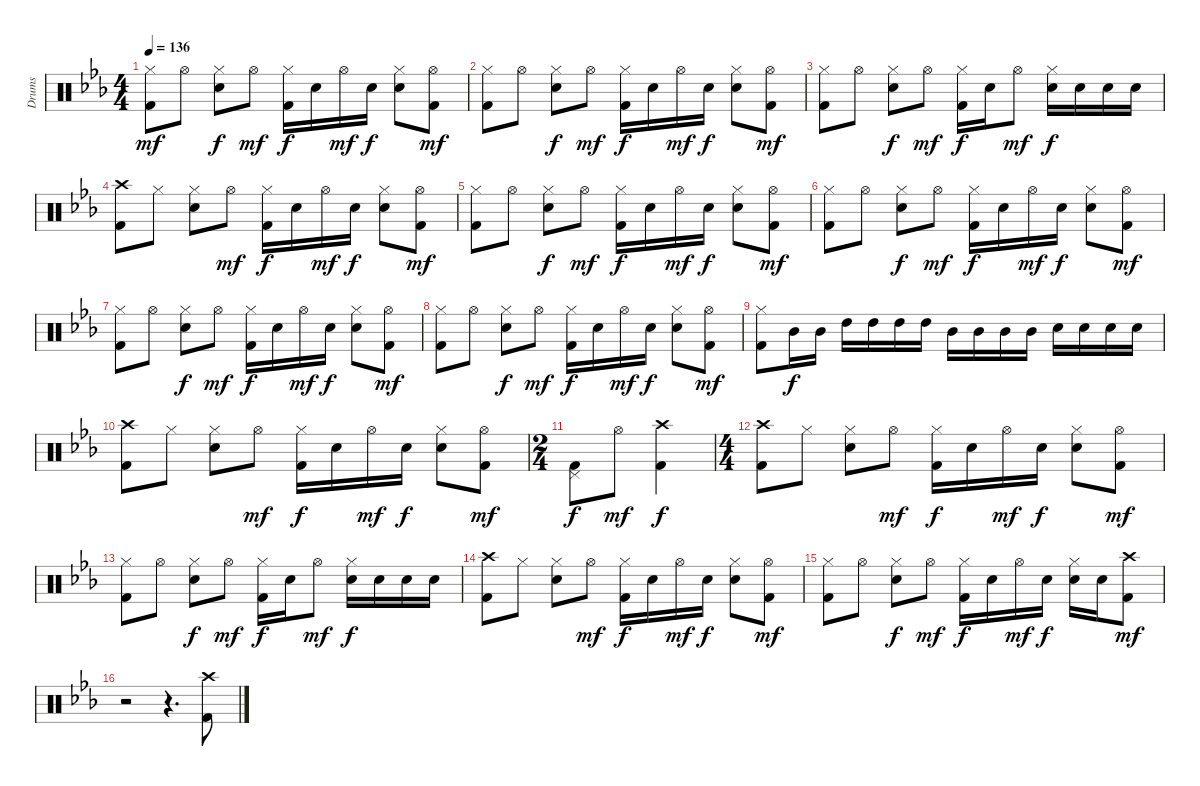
\track ("Drums" "Drums") {instrument percussion}
\staff {score}
\articulation defaults
\ts (4 4)
\tempo 136
\clef neutral
\ks eb
("Hi-Hat (closed)" "Kick (hit) 2").8{dy mf} "Hi-Hat (open)".8 ("Hi-Hat (closed)" "Electric Snare (hit)").8{dy f} "Hi-Hat (open)".8{dy mf} ("Hi-Hat (closed)" "Kick (hit) 2").16{dy f} "Electric Snare (hit)".16 "Hi-Hat (open)".16{dy mf} "Electric Snare (hit)".16{dy f} ("Hi-Hat (closed)" "Electric Snare (hit)").8 ("Hi-Hat (open)" "Kick (hit) 2").8{dy mf} |
("Hi-Hat (closed)" "Kick (hit) 2").8 "Hi-Hat (open)".8 ("Hi-Hat (closed)" "Electric Snare (hit)").8{dy f} "Hi-Hat (open)".8{dy mf} ("Hi-Hat (closed)" "Kick (hit) 2").16{dy f} "Electric Snare (hit)".16 "Hi-Hat (open)".16{dy mf} "Electric Snare (hit)".16{dy f} ("Hi-Hat (closed)" "Electric Snare (hit)").8 ("Hi-Hat (open)" "Kick (hit) 2").8{dy mf} |
("Hi-Hat (closed)" "Kick (hit) 2").8 "Hi-Hat (open)".8 ("Hi-Hat (closed)" "Electric Snare (hit)").8{dy f} "Hi-Hat (open)".8{dy mf} ("Hi-Hat (closed)" "Kick (hit) 2").16{dy f} "Electric Snare (hit)".16 "Hi-Hat (open)".8{dy mf} ("Hi-Hat (closed)" "Electric Snare (hit)").16{dy f} "Electric Snare (hit)".16 "Electric Snare (hit)".16 "Electric Snare (hit)".16 |
("Crash high (hit)" "Kick (hit) 2").8 "Hi-Hat (closed)".8 ("Hi-Hat (closed)" "Electric Snare (hit)").8 "Hi-Hat (open)".8{dy mf} ("Hi-Hat (closed)" "Kick (hit) 2").16{dy f} "Electric Snare (hit)".16 "Hi-Hat (open)".16{dy mf} "Electric Snare (hit)".16{dy f} ("Hi-Hat (closed)" "Electric Snare (hit)").8 ("Hi-Hat (open)" "Kick (hit) 2").8{dy mf} |
("Hi-Hat (closed)" "Kick (hit) 2").8 "Hi-Hat (open)".8 ("Hi-Hat (closed)" "Electric Snare (hit)").8{dy f} "Hi-Hat (open)".8{dy mf} ("Hi-Hat (closed)" "Kick (hit) 2").16{dy f} "Electric Snare (hit)".16 "Hi-Hat (open)".16{dy mf} "Electric Snare (hit)".16{dy f} ("Hi-Hat (closed)" "Electric Snare (hit)").8 ("Hi-Hat (open)" "Kick (hit) 2").8{dy mf} |
("Hi-Hat (closed)" "Kick (hit) 2").8 "Hi-Hat (open)".8 ("Hi-Hat (closed)" "Electric Snare (hit)").8{dy f} "Hi-Hat (open)".8{dy mf} ("Hi-Hat (closed)" "Kick (hit) 2").16{dy f} "Electric Snare (hit)".16 "Hi-Hat (open)".16{dy mf} "Electric Snare (hit)".16{dy f} ("Hi-Hat (closed)" "Electric Snare (hit)").8 ("Hi-Hat (open)" "Kick (hit) 2").8{dy mf} |
("Hi-Hat (closed)" "Kick (hit) 2").8 "Hi-Hat (open)".8 ("Hi-Hat (closed)" "Electric Snare (hit)").8{dy f} "Hi-Hat (open)".8{dy mf} ("Hi-Hat (closed)" "Kick (hit) 2").16{dy f} "Electric Snare (hit)".16 "Hi-Hat (open)".16{dy mf} "Electric Snare (hit)".16{dy f} ("Hi-Hat (closed)" "Electric Snare (hit)").8 ("Hi-Hat (open)" "Kick (hit) 2").8{dy mf} |
("Hi-Hat (closed)" "Kick (hit) 2").8 "Hi-Hat (open)".8 ("Hi-Hat (closed)" "Electric Snare (hit)").8{dy f} "Hi-Hat (open)".8{dy mf} ("Hi-Hat (closed)" "Kick (hit) 2").16{dy f} "Electric Snare (hit)".16 "Hi-Hat (open)".16{dy mf} "Electric Snare (hit)".16{dy f} ("Hi-Hat (closed)" "Electric Snare (hit)").8 ("Hi-Hat (open)" "Kick (hit) 2").8{dy mf} |
("Hi-Hat (closed)" "Kick (hit) 2").8 "Mid Tom (hit)".16{dy f} "Mid Tom (hit)".16 "High Tom (hit)".16 "High Tom (hit)".16 "High Tom (hit)".16 "High Tom (hit)".16 "Mid Tom (hit)".16 "Mid Tom (hit)".16 "Mid Tom (hit)".16 "Mid Tom (hit)".16 "Electric Snare (hit)".16 "Electric Snare (hit)".16 "Electric Snare (hit)".16 "Electric Snare (hit)".16 |
("Crash high (hit)" "Kick (hit) 2").8 "Hi-Hat (closed)".8 ("Hi-Hat (closed)" "Electric Snare (hit)").8 "Hi-Hat (open)".8{dy mf} ("Hi-Hat (closed)" "Kick (hit) 2").16{dy f} "Electric Snare (hit)".16 "Hi-Hat (open)".16{dy mf} "Electric Snare (hit)".16{dy f} ("Hi-Hat (closed)" "Electric Snare (hit)").8 ("Hi-Hat (open)" "Kick (hit) 2").8{dy mf} |
\ts (2 4)
("Pedal Hi-Hat (hit)" "Kick (hit) 2").8{dy f} "Hi-Hat (open)".8{dy mf} ("Crash high (hit)" "Kick (hit) 2").4{dy f} |
\ts (4 4)
("Crash high (hit)" "Kick (hit) 2").8 "Hi-Hat (closed)".8 ("Hi-Hat (closed)" "Electric Snare (hit)").8 "Hi-Hat (open)".8{dy mf} ("Hi-Hat (closed)" "Kick (hit) 2").16{dy f} "Electric Snare (hit)".16 "Hi-Hat (open)".16{dy mf} "Electric Snare (hit)".16{dy f} ("Hi-Hat (closed)" "Electric Snare (hit)").8 ("Hi-Hat (open)" "Kick (hit) 2").8{dy mf} |
("Hi-Hat (closed)" "Kick (hit) 2").8 "Hi-Hat (open)".8 ("Hi-Hat (closed)" "Electric Snare (hit)").8{dy f} "Hi-Hat (open)".8{dy mf} ("Hi-Hat (closed)" "Kick (hit) 2").16{dy f} "Electric Snare (hit)".16 "Hi-Hat (open)".8{dy mf} ("Hi-Hat (closed)" "Electric Snare (hit)").16{dy f} "Electric Snare (hit)".16 "Electric Snare (hit)".16 "Electric Snare (hit)".16 |
("Crash high (hit)" "Kick (hit) 2").8 "Hi-Hat (closed)".8 ("Hi-Hat (closed)" "Electric Snare (hit)").8 "Hi-Hat (open)".8{dy mf} ("Hi-Hat (closed)" "Kick (hit) 2").16{dy f} "Electric Snare (hit)".16 "Hi-Hat (open)".16{dy mf} "Electric Snare (hit)".16{dy f} ("Hi-Hat (closed)" "Electric Snare (hit)").8 ("Hi-Hat (open)" "Kick (hit) 2").8{dy mf} |
("Hi-Hat (closed)" "Kick (hit) 2").8 "Hi-Hat (open)".8 ("Hi-Hat (closed)" "Electric Snare (hit)").8{dy f} "Hi-Hat (open)".8{dy mf} ("Hi-Hat (closed)" "Kick (hit) 2").16{dy f} "Electric Snare (hit)".16 "Hi-Hat (open)".16{dy mf} "Electric Snare (hit)".16{dy f} ("Hi-Hat (closed)" "Electric Snare (hit)").16 "Electric Snare (hit)".16 ("Crash high (hit)" "Kick (hit) 2").8{dy mf} |
r.2 r.4{d} ("Crash high (hit)" "Kick (hit) 2").8
